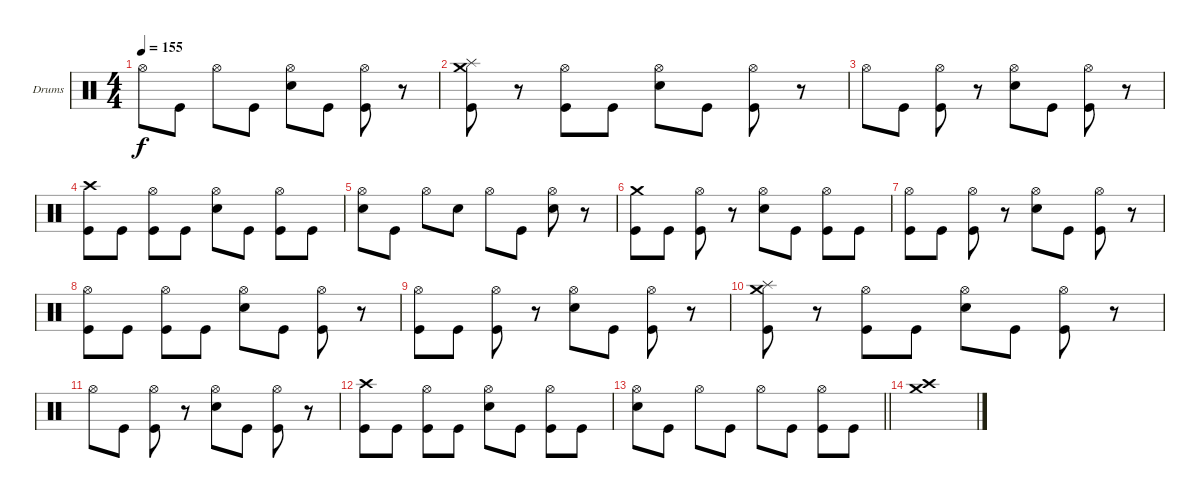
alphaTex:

\defaultSystemsLayout 4
\bracketExtendMode groupsimilarinstruments
\firstSystemTrackNameOrientation horizontal
\otherSystemsTrackNameOrientation horizontal
\track ("Drumkit" "Drums") {instrument percussion}
\staff {score}
\articulation defaults
\ts (4 4)
\tempo 155
\clef neutral
\ks c "Hi-Hat (open)".8{dy f} "Kick (hit)".8 "Hi-Hat (open)".8 "Kick (hit)".8
("Hi-Hat (open)" "Snare (hit) 2").8 "Kick (hit)".8 ("Hi-Hat (open)" "Kick (hit)").8 r.8 |
("Splash (hit)" "Crash medium (hit)" "Kick (hit)").8 r.8 ("Hi-Hat (open)" "Kick (hit)").8 "Kick (hit)".8 ("Hi-Hat (open)" "Snare (hit) 2").8 "Kick (hit)".8 ("Hi-Hat (open)" "Kick (hit)").8 r.8 |
"Hi-Hat (open)".8 "Kick (hit)".8 ("Hi-Hat (open)" "Kick (hit)").8 r.8 ("Hi-Hat (open)" "Snare (hit) 2").8 "Kick (hit)".8 ("Hi-Hat (open)" "Kick (hit)").8 r.8 |
("Crash high (hit)" "Kick (hit)").8 "Kick (hit)".8 ("Hi-Hat (open)" "Kick (hit)").8 "Kick (hit)".8 ("Hi-Hat (open)" "Snare (hit) 2").8 "Kick (hit)".8 ("Hi-Hat (open)" "Kick (hit)").8 "Kick (hit)".8 |
("Hi-Hat (open)" "Snare (hit) 2").8 "Kick (hit)".8 "Hi-Hat (open)".8 "Snare (hit) 2".8 "Hi-Hat (open)".8 "Kick (hit)".8 ("Hi-Hat (open)" "Snare (hit) 2").8 r.8 |
("Crash medium (hit)" "Kick (hit)").8 "Kick (hit)".8 ("Kick (hit)" "Hi-Hat (open)").8 r.8 ("Snare (hit) 2" "Hi-Hat (open)").8 "Kick (hit)".8 ("Kick (hit)" "Hi-Hat (open)").8 "Kick (hit)".8 |
("Kick (hit)" "Hi-Hat (open)").8 "Kick (hit)".8 ("Kick (hit)" "Hi-Hat (open)").8 r.8 ("Snare (hit) 2" "Hi-Hat (open)").8 "Kick (hit)".8 ("Kick (hit)" "Hi-Hat (open)").8 r.8 |
("Kick (hit)" "Hi-Hat (open)").8 "Kick (hit)".8 ("Kick (hit)" "Hi-Hat (open)").8 "Kick (hit)".8 ("Snare (hit) 2" "Hi-Hat (open)").8 "Kick (hit)".8 ("Kick (hit)" "Hi-Hat (open)").8 r.8 |
("Kick (hit)" "Hi-Hat (open)").8 "Kick (hit)".8 ("Kick (hit)" "Hi-Hat (open)").8 r.8 ("Snare (hit) 2" "Hi-Hat (open)").8 "Kick (hit)".8 ("Kick (hit)" "Hi-Hat (open)").8 r.8 |
("Splash (hit)" "Crash medium (hit)" "Kick (hit)").8 r.8 ("Hi-Hat (open)" "Kick (hit)").8 "Kick (hit)".8 ("Hi-Hat (open)" "Snare (hit) 2").8 "Kick (hit)".8 ("Hi-Hat (open)" "Kick (hit)").8 r.8 |
"Hi-Hat (open)".8 "Kick (hit)".8 ("Hi-Hat (open)" "Kick (hit)").8 r.8 ("Hi-Hat (open)" "Snare (hit) 2").8 "Kick (hit)".8 ("Hi-Hat (open)" "Kick (hit)").8 r.8 |
("Crash high (hit)" "Kick (hit)").8 "Kick (hit)".8 ("Hi-Hat (open)" "Kick (hit)").8 "Kick (hit)".8 ("Hi-Hat (open)" "Snare (hit) 2").8 "Kick (hit)".8 ("Hi-Hat (open)" "Kick (hit)").8 "Kick (hit)".8 |
\barLineRight lightlight
("Hi-Hat (open)" "Snare (hit) 2").8 "Kick (hit)".8 "Hi-Hat (open)".8 "Kick (hit)".8 "Hi-Hat (open)".8 "Kick (hit)".8 ("Hi-Hat (open)" "Kick (hit)").8 "Kick (hit)".8 |
("Crash medium (hit)" "Crash high (hit)").1
